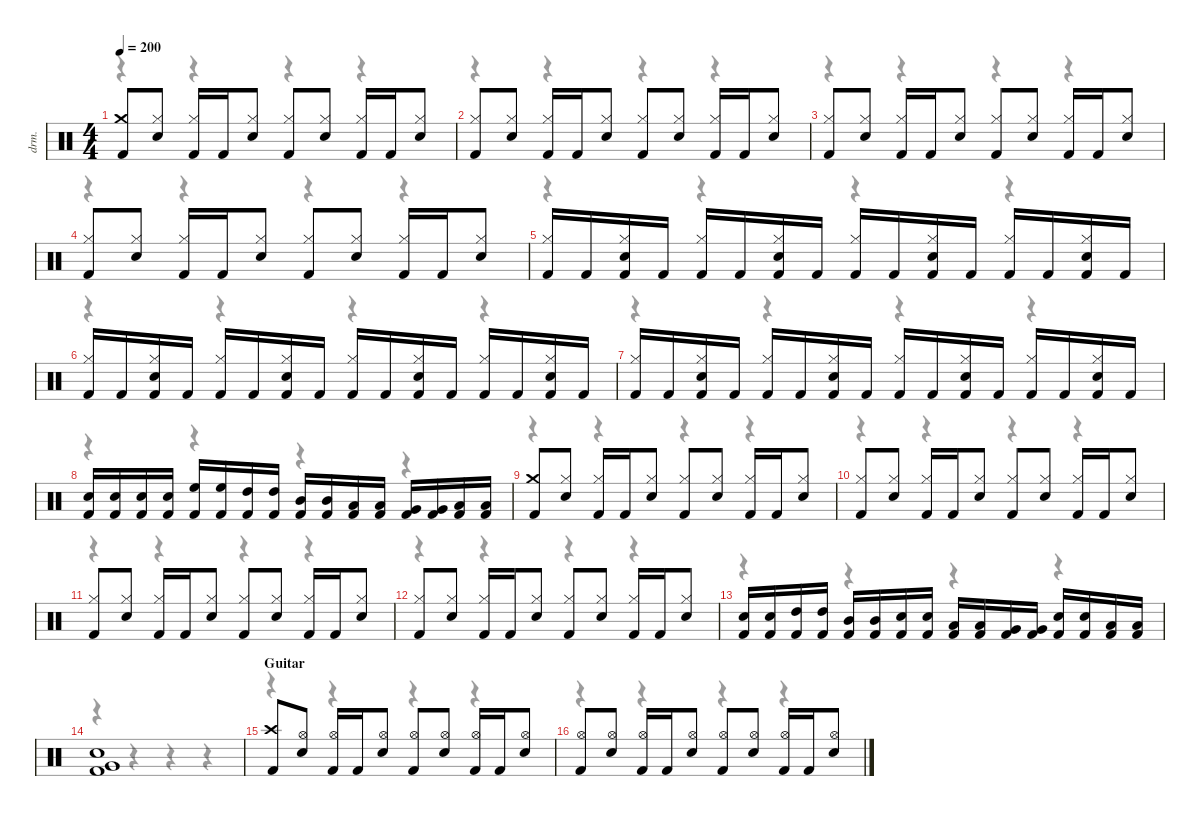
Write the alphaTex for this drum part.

\hideDynamics
\bracketExtendMode nobrackets
\otherSystemsTrackNameOrientation horizontal
\track ("Drums" "drm.") {instrument percussion}
\staff {score}
\articulation defaults
\voice
\ts (4 4)
\section ("" "")
\scale
1.05664
\tempo 200
\accidentals auto
\clef neutral
\ottava regular
\simile none
\ks c
("Kick (hit) 2" "Crash medium (hit)").8{dy f} ("Snare (hit) 2" "Hi-Hat (closed)").8 ("Kick (hit) 2" "Hi-Hat (closed)").16 "Kick (hit) 2".16 ("Snare (hit) 2" "Hi-Hat (closed)").8 ("Kick (hit) 2" "Hi-Hat (closed)").8 ("Snare (hit) 2" "Hi-Hat (closed)").8 ("Kick (hit) 2" "Hi-Hat (closed)").16 "Kick (hit) 2".16 ("Snare (hit) 2" "Hi-Hat (closed)").8 |
\scale
0.997499 ("Kick (hit) 2" "Hi-Hat (closed)").8 ("Snare (hit) 2" "Hi-Hat (closed)").8 ("Kick (hit) 2" "Hi-Hat (closed)").16 "Kick (hit) 2".16 ("Snare (hit) 2" "Hi-Hat (closed)").8 ("Kick (hit) 2" "Hi-Hat (closed)").8 ("Snare (hit) 2" "Hi-Hat (closed)").8 ("Kick (hit) 2" "Hi-Hat (closed)").16 "Kick (hit) 2".16 ("Snare (hit) 2" "Hi-Hat (closed)").8 |
\scale
0.997499 ("Kick (hit) 2" "Hi-Hat (closed)").8 ("Snare (hit) 2" "Hi-Hat (closed)").8 ("Kick (hit) 2" "Hi-Hat (closed)").16 "Kick (hit) 2".16 ("Snare (hit) 2" "Hi-Hat (closed)").8 ("Kick (hit) 2" "Hi-Hat (closed)").8 ("Snare (hit) 2" "Hi-Hat (closed)").8 ("Kick (hit) 2" "Hi-Hat (closed)").16 "Kick (hit) 2".16 ("Snare (hit) 2" "Hi-Hat (closed)").8 |
\scale
0.997499 ("Kick (hit) 2" "Hi-Hat (closed)").8 ("Snare (hit) 2" "Hi-Hat (closed)").8 ("Kick (hit) 2" "Hi-Hat (closed)").16 "Kick (hit) 2".16 ("Snare (hit) 2" "Hi-Hat (closed)").8 ("Kick (hit) 2" "Hi-Hat (closed)").8 ("Snare (hit) 2" "Hi-Hat (closed)").8 ("Kick (hit) 2" "Hi-Hat (closed)").16 "Kick (hit) 2".16 ("Snare (hit) 2" "Hi-Hat (closed)").8 |
\scale
0.975432 ("Kick (hit) 2" "Hi-Hat (closed)").16 "Kick (hit) 2".16 ("Kick (hit) 2" "Snare (hit) 2" "Hi-Hat (closed)").16 "Kick (hit) 2".16 ("Kick (hit) 2" "Hi-Hat (closed)").16 "Kick (hit) 2".16 ("Kick (hit) 2" "Snare (hit) 2" "Hi-Hat (closed)").16 "Kick (hit) 2".16 ("Kick (hit) 2" "Hi-Hat (closed)").16 "Kick (hit) 2".16 ("Kick (hit) 2" "Snare (hit) 2" "Hi-Hat (closed)").16 "Kick (hit) 2".16 ("Kick (hit) 2" "Hi-Hat (closed)").16 "Kick (hit) 2".16 ("Kick (hit) 2" "Snare (hit) 2" "Hi-Hat (closed)").16 "Kick (hit) 2".16 |
\scale
0.975432 ("Kick (hit) 2" "Hi-Hat (closed)").16 "Kick (hit) 2".16 ("Kick (hit) 2" "Snare (hit) 2" "Hi-Hat (closed)").16 "Kick (hit) 2".16 ("Kick (hit) 2" "Hi-Hat (closed)").16 "Kick (hit) 2".16 ("Kick (hit) 2" "Snare (hit) 2" "Hi-Hat (closed)").16 "Kick (hit) 2".16 ("Kick (hit) 2" "Hi-Hat (closed)").16 "Kick (hit) 2".16 ("Kick (hit) 2" "Snare (hit) 2" "Hi-Hat (closed)").16 "Kick (hit) 2".16 ("Kick (hit) 2" "Hi-Hat (closed)").16 "Kick (hit) 2".16 ("Kick (hit) 2" "Snare (hit) 2" "Hi-Hat (closed)").16 "Kick (hit) 2".16 |
\scale
1.07564 ("Kick (hit) 2" "Hi-Hat (closed)").16 "Kick (hit) 2".16 ("Kick (hit) 2" "Snare (hit) 2" "Hi-Hat (closed)").16 "Kick (hit) 2".16 ("Kick (hit) 2" "Hi-Hat (closed)").16 "Kick (hit) 2".16 ("Kick (hit) 2" "Snare (hit) 2" "Hi-Hat (closed)").16 "Kick (hit) 2".16 ("Kick (hit) 2" "Hi-Hat (closed)").16 "Kick (hit) 2".16 ("Kick (hit) 2" "Snare (hit) 2" "Hi-Hat (closed)").16 "Kick (hit) 2".16 ("Kick (hit) 2" "Hi-Hat (closed)").16 "Kick (hit) 2".16 ("Kick (hit) 2" "Snare (hit) 2" "Hi-Hat (closed)").16 "Kick (hit) 2".16 |
\scale
0.990757 ("Kick (hit) 2" "Snare (hit) 2").16 ("Kick (hit) 2" "Snare (hit) 2").16 ("Kick (hit) 2" "Snare (hit) 2").16 ("Kick (hit) 2" "Snare (hit) 2").16 ("Kick (hit) 2" "High Floor Tom (hit)").16 ("Kick (hit) 2" "High Floor Tom (hit)").16 ("Kick (hit) 2" "High Tom (hit)").16 ("Kick (hit) 2" "High Tom (hit)").16 ("Kick (hit) 2" "Mid Tom (hit)").16 ("Kick (hit) 2" "Mid Tom (hit)").16 ("Kick (hit) 2" "Low Tom (hit)").16 ("Kick (hit) 2" "Low Tom (hit)").16 ("Kick (hit) 2" "Very Low Tom (hit)").16 ("Kick (hit) 2" "Very Low Tom (hit)").16 ("Kick (hit) 2" "Low Floor Tom (hit)").16 ("Kick (hit) 2" "Low Floor Tom (hit)").16 |
\scale
0.961334 ("Kick (hit) 2" "Crash medium (hit)").8 ("Snare (hit) 2" "Hi-Hat (closed)").8 ("Kick (hit) 2" "Hi-Hat (closed)").16 "Kick (hit) 2".16 ("Snare (hit) 2" "Hi-Hat (closed)").8 ("Kick (hit) 2" "Hi-Hat (closed)").8 ("Snare (hit) 2" "Hi-Hat (closed)").8 ("Kick (hit) 2" "Hi-Hat (closed)").16 "Kick (hit) 2".16 ("Snare (hit) 2" "Hi-Hat (closed)").8 |
\scale
0.990757 ("Kick (hit) 2" "Hi-Hat (closed)").8 ("Snare (hit) 2" "Hi-Hat (closed)").8 ("Kick (hit) 2" "Hi-Hat (closed)").16 "Kick (hit) 2".16 ("Snare (hit) 2" "Hi-Hat (closed)").8 ("Kick (hit) 2" "Hi-Hat (closed)").8 ("Snare (hit) 2" "Hi-Hat (closed)").8 ("Kick (hit) 2" "Hi-Hat (closed)").16 "Kick (hit) 2".16 ("Snare (hit) 2" "Hi-Hat (closed)").8 |
\scale
0.990757 ("Kick (hit) 2" "Hi-Hat (closed)").8 ("Snare (hit) 2" "Hi-Hat (closed)").8 ("Kick (hit) 2" "Hi-Hat (closed)").16 "Kick (hit) 2".16 ("Snare (hit) 2" "Hi-Hat (closed)").8 ("Kick (hit) 2" "Hi-Hat (closed)").8 ("Snare (hit) 2" "Hi-Hat (closed)").8 ("Kick (hit) 2" "Hi-Hat (closed)").16 "Kick (hit) 2".16 ("Snare (hit) 2" "Hi-Hat (closed)").8 |
\scale
0.990757 ("Kick (hit) 2" "Hi-Hat (closed)").8 ("Snare (hit) 2" "Hi-Hat (closed)").8 ("Kick (hit) 2" "Hi-Hat (closed)").16 "Kick (hit) 2".16 ("Snare (hit) 2" "Hi-Hat (closed)").8 ("Kick (hit) 2" "Hi-Hat (closed)").8 ("Snare (hit) 2" "Hi-Hat (closed)").8 ("Kick (hit) 2" "Hi-Hat (closed)").16 "Kick (hit) 2".16 ("Snare (hit) 2" "Hi-Hat (closed)").8 |
\scale
1.06929 ("Kick (hit) 2" "Snare (hit) 2").16 ("Kick (hit) 2" "Snare (hit) 2").16 ("Kick (hit) 2" "High Tom (hit)").16 ("Kick (hit) 2" "High Tom (hit)").16 ("Kick (hit) 2" "Mid Tom (hit)").16 ("Kick (hit) 2" "Mid Tom (hit)").16 ("Kick (hit) 2" "Snare (hit) 2").16 ("Kick (hit) 2" "Snare (hit) 2").16 ("Kick (hit) 2" "Low Tom (hit)").16 ("Kick (hit) 2" "Low Tom (hit)").16 ("Kick (hit) 2" "Very Low Tom (hit)").16 ("Kick (hit) 2" "Very Low Tom (hit)").16 ("Kick (hit) 2" "Snare (hit) 2").16 ("Kick (hit) 2" "Snare (hit) 2").16 ("Kick (hit) 2" "Low Floor Tom (hit)").16 ("Kick (hit) 2" "Low Floor Tom (hit)").16 |
\scale
0.993086 ("Kick (hit) 2" "Snare (hit) 2" "Very Low Tom (hit)").1 |
\section ("" "Guitar")
\scale
0.988084 ("Kick (hit) 2" "Crash high (hit)").8 ("Snare (hit) 2" "Hi-Hat (open)").8 ("Kick (hit) 2" "Hi-Hat (open)").16 "Kick (hit) 2".16 ("Snare (hit) 2" "Hi-Hat (open)").8 ("Kick (hit) 2" "Hi-Hat (open)").8 ("Snare (hit) 2" "Hi-Hat (open)").8 ("Kick (hit) 2" "Hi-Hat (open)").16 "Kick (hit) 2".16 ("Snare (hit) 2" "Hi-Hat (open)").8 |
\scale
0.988084 ("Kick (hit) 2" "Hi-Hat (open)").8 ("Snare (hit) 2" "Hi-Hat (open)").8 ("Kick (hit) 2" "Hi-Hat (open)").16 "Kick (hit) 2".16 ("Snare (hit) 2" "Hi-Hat (open)").8 ("Kick (hit) 2" "Hi-Hat (open)").8 ("Snare (hit) 2" "Hi-Hat (open)").8 ("Kick (hit) 2" "Hi-Hat (open)").16 "Kick (hit) 2".16 ("Snare (hit) 2" "Hi-Hat (open)").8
\voice
\clef neutral
\ottava regular
\simile none
\ks c
r.4{dy mf} r.4 r.4 r.4 |
r.4 r.4 r.4 r.4 |
r.4 r.4 r.4 r.4 |
r.4 r.4 r.4 r.4 |
r.4 r.4 r.4 r.4 |
r.4 r.4 r.4 r.4 |
r.4 r.4 r.4 r.4 |
r.4 r.4 r.4 r.4 |
r.4 r.4 r.4 r.4 |
r.4 r.4 r.4 r.4 |
r.4 r.4 r.4 r.4 |
r.4 r.4 r.4 r.4 |
r.4 r.4 r.4 r.4 |
r.4 r.4 r.4 r.4 |
r.4 r.4 r.4 r.4 |
r.4 r.4 r.4 r.4
